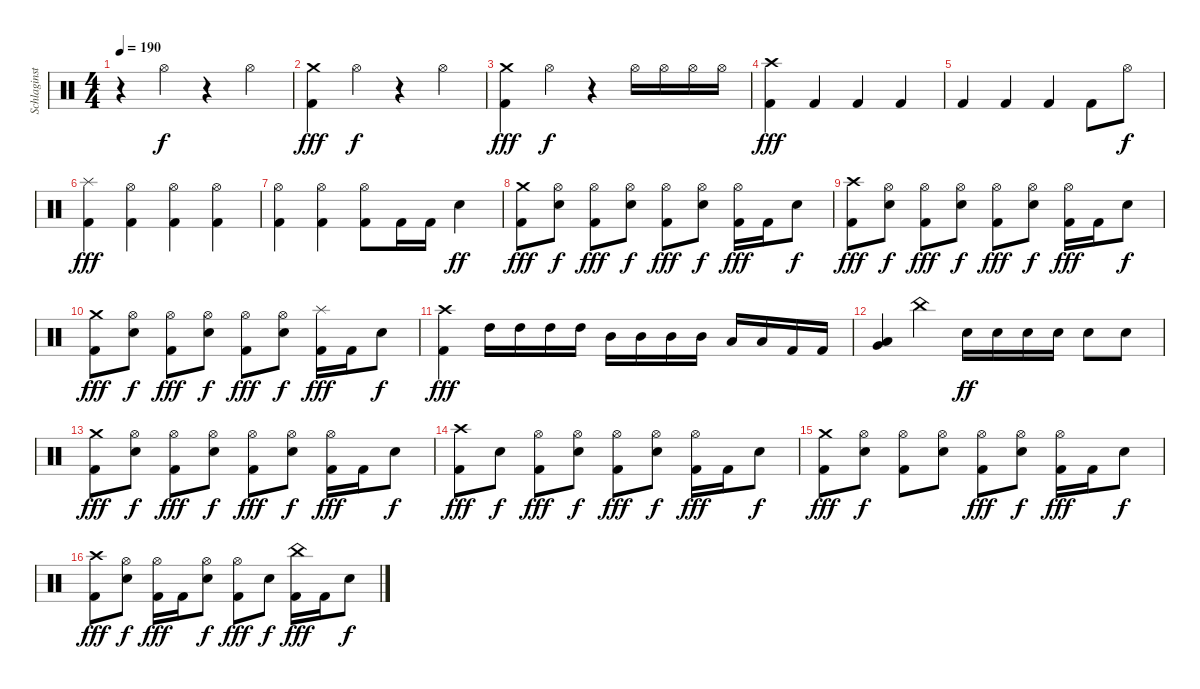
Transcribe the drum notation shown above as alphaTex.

\track ("Schlaginstrumente - Auswahl" "Schlaginst") {instrument percussion}
\staff {score}
\articulation defaults
\ts (4 4)
\tempo 190
\clef neutral
\ks c
r.4{dy f} "Hi-Hat (open)".4 r.4 "Hi-Hat (open)".4 |
("Crash medium (hit)" "Kick (hit) 2").4{dy fff} "Hi-Hat (open)".4{dy f} r.4 "Hi-Hat (open)".4 |
("Crash medium (hit)" "Kick (hit) 2").4{dy fff} "Hi-Hat (open)".4{dy f} r.4 "Hi-Hat (open)".16 "Hi-Hat (open)".16 "Hi-Hat (open)".16 "Hi-Hat (open)".16 |
("Crash high (hit)" "Kick (hit) 2").4{dy fff} "Kick (hit) 2".4 "Kick (hit) 2".4 "Kick (hit) 2".4 |
"Kick (hit) 2".4 "Kick (hit) 2".4 "Kick (hit) 2".4 "Kick (hit) 2".8 "Hi-Hat (open)".8{dy f} |
("Splash (hit)" "Kick (hit) 2").4{dy fff} ("Hi-Hat (open)" "Kick (hit) 2").4 ("Hi-Hat (open)" "Kick (hit) 2").4 ("Hi-Hat (open)" "Kick (hit) 2").4 |
("Hi-Hat (open)" "Kick (hit) 2").4 ("Hi-Hat (open)" "Kick (hit) 2").4 ("Hi-Hat (open)" "Kick (hit) 2").8 "Kick (hit) 2".16 "Kick (hit) 2".16 "Snare (hit) 2".4{dy ff} |
("Crash medium (hit)" "Kick (hit) 2").8{dy fff} ("Hi-Hat (open)" "Snare (hit) 2").8{dy f} ("Hi-Hat (open)" "Kick (hit) 2").8{dy fff} ("Hi-Hat (open)" "Snare (hit) 2").8{dy f} ("Hi-Hat (open)" "Kick (hit) 2").8{dy fff} ("Hi-Hat (open)" "Snare (hit) 2").8{dy f} ("Hi-Hat (open)" "Kick (hit) 2").16{dy fff} "Kick (hit) 2".16 "Snare (hit) 2".8{dy f} |
("Crash high (hit)" "Kick (hit) 2").8{dy fff} ("Hi-Hat (open)" "Snare (hit) 2").8{dy f} ("Hi-Hat (open)" "Kick (hit) 2").8{dy fff} ("Hi-Hat (open)" "Snare (hit) 2").8{dy f} ("Hi-Hat (open)" "Kick (hit) 2").8{dy fff} ("Hi-Hat (open)" "Snare (hit) 2").8{dy f} ("Hi-Hat (open)" "Kick (hit) 2").16{dy fff} "Kick (hit) 2".16 "Snare (hit) 2".8{dy f} |
("Crash medium (hit)" "Kick (hit) 2").8{dy fff} ("Hi-Hat (open)" "Snare (hit) 2").8{dy f} ("Hi-Hat (open)" "Kick (hit) 2").8{dy fff} ("Hi-Hat (open)" "Snare (hit) 2").8{dy f} ("Hi-Hat (open)" "Kick (hit) 2").8{dy fff} ("Hi-Hat (open)" "Snare (hit) 2").8{dy f} ("Splash (hit)" "Kick (hit) 2").16{dy fff} "Kick (hit) 2".16 "Snare (hit) 2".8{dy f} |
("Crash high (hit)" "Kick (hit) 2").4{dy fff} "High Tom (hit)".16 "High Tom (hit)".16 "High Tom (hit)".16 "High Tom (hit)".16 "Mid Tom (hit)".16 "Mid Tom (hit)".16 "Mid Tom (hit)".16 "Mid Tom (hit)".16 "Low Tom (hit)".16 "Low Tom (hit)".16 "Kick (hit) 2".16 "Kick (hit) 2".16 |
("Very Low Tom (hit)" "Low Floor Tom (hit)").4 "China (hit)".4 "Snare (hit) 2".16{dy ff} "Snare (hit) 2".16 "Snare (hit) 2".16 "Snare (hit) 2".16 "Snare (hit) 2".8 "Snare (hit) 2".8 |
("Crash medium (hit)" "Kick (hit) 2").8{dy fff} ("Hi-Hat (open)" "Snare (hit) 2").8{dy f} ("Hi-Hat (open)" "Kick (hit) 2").8{dy fff} ("Hi-Hat (open)" "Snare (hit) 2").8{dy f} ("Hi-Hat (open)" "Kick (hit) 2").8{dy fff} ("Hi-Hat (open)" "Snare (hit) 2").8{dy f} ("Hi-Hat (open)" "Kick (hit) 2").16{dy fff} "Kick (hit) 2".16 "Snare (hit) 2".8{dy f} |
("Crash high (hit)" "Kick (hit) 2").8{dy fff} "Snare (hit) 2".8{dy f} ("Hi-Hat (open)" "Kick (hit) 2").8{dy fff} ("Hi-Hat (open)" "Snare (hit) 2").8{dy f} ("Hi-Hat (open)" "Kick (hit) 2").8{dy fff} ("Hi-Hat (open)" "Snare (hit) 2").8{dy f} ("Hi-Hat (open)" "Kick (hit) 2").16{dy fff} "Kick (hit) 2".16 "Snare (hit) 2".8{dy f} |
("Crash medium (hit)" "Kick (hit) 2").8{dy fff} ("Hi-Hat (open)" "Snare (hit) 2").8{dy f} ("Hi-Hat (open)" "Kick (hit) 2").8 ("Hi-Hat (open)" "Snare (hit) 2").8 ("Hi-Hat (open)" "Kick (hit) 2").8{dy fff} ("Hi-Hat (open)" "Snare (hit) 2").8{dy f} ("Hi-Hat (open)" "Kick (hit) 2").16{dy fff} "Kick (hit) 2".16 "Snare (hit) 2".8{dy f} |
("Crash high (hit)" "Kick (hit) 2").8{dy fff} ("Hi-Hat (open)" "Snare (hit) 2").8{dy f} ("Hi-Hat (open)" "Kick (hit) 2").16{dy fff} "Kick (hit) 2".16 ("Hi-Hat (open)" "Snare (hit) 2").8{dy f} ("Hi-Hat (open)" "Kick (hit) 2").8{dy fff} "Snare (hit) 2".8{dy f} ("China (hit)" "Kick (hit) 2").16{dy fff} "Kick (hit) 2".16 "Snare (hit) 2".8{dy f}
